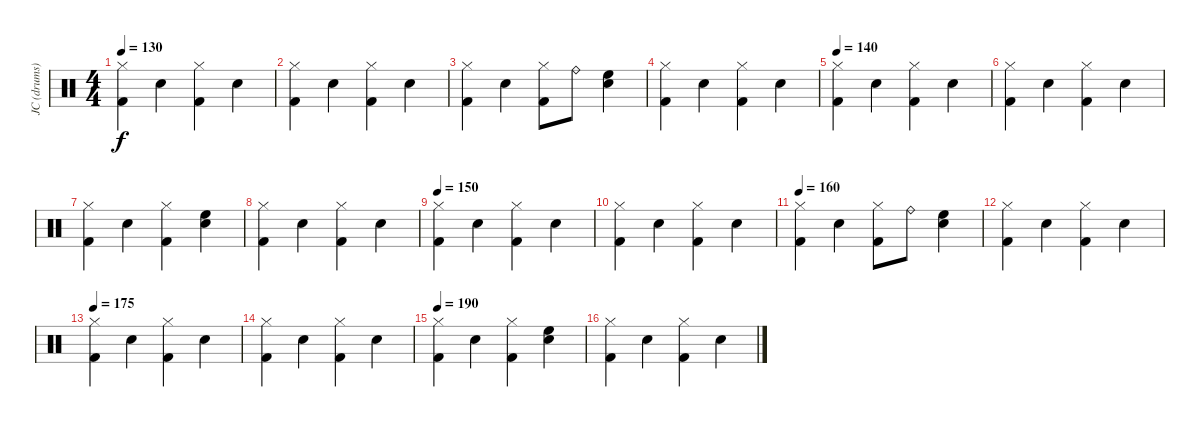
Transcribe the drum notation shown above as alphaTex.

\track ("JC (drums)" "JC (drums)") {instrument percussion}
\staff {score}
\articulation defaults
\ts (4 4)
\tempo 130
\clef neutral
\ks c
("Hi-Hat (closed)" "Kick (hit) 2").4{dy f} "Electric Snare (hit)".4 ("Hi-Hat (closed)" "Kick (hit) 2").4 "Snare (hit) 2".4 |
("Hi-Hat (closed)" "Kick (hit) 2").4 "Electric Snare (hit)".4 ("Hi-Hat (closed)" "Kick (hit) 2").4 "Snare (hit) 2".4 |
("Hi-Hat (closed)" "Kick (hit) 2").4 "Electric Snare (hit)".4 ("Hi-Hat (closed)" "Kick (hit) 2").8 "Ride (bell)".8 ("High Floor Tom (hit)" "Snare (hit) 2").4 |
("Hi-Hat (closed)" "Kick (hit) 2").4 "Electric Snare (hit)".4 ("Hi-Hat (closed)" "Kick (hit) 2").4 "Snare (hit) 2".4 |
\tempo 140
("Hi-Hat (closed)" "Kick (hit) 2").4 "Electric Snare (hit)".4 ("Hi-Hat (closed)" "Kick (hit) 2").4 "Snare (hit) 2".4 |
("Hi-Hat (closed)" "Kick (hit) 2").4 "Electric Snare (hit)".4 ("Hi-Hat (closed)" "Kick (hit) 2").4 "Snare (hit) 2".4 |
("Hi-Hat (closed)" "Kick (hit) 2").4 "Electric Snare (hit)".4 ("Hi-Hat (closed)" "Kick (hit) 2").4 ("High Floor Tom (hit)" "Snare (hit) 2").4 |
("Hi-Hat (closed)" "Kick (hit) 2").4 "Electric Snare (hit)".4 ("Hi-Hat (closed)" "Kick (hit) 2").4 "Snare (hit) 2".4 |
\tempo 150
("Hi-Hat (closed)" "Kick (hit) 2").4 "Electric Snare (hit)".4 ("Hi-Hat (closed)" "Kick (hit) 2").4 "Snare (hit) 2".4 |
("Hi-Hat (closed)" "Kick (hit) 2").4 "Electric Snare (hit)".4 ("Hi-Hat (closed)" "Kick (hit) 2").4 "Snare (hit) 2".4 |
\tempo 160
("Hi-Hat (closed)" "Kick (hit) 2").4 "Electric Snare (hit)".4 ("Hi-Hat (closed)" "Kick (hit) 2").8 "Ride (bell)".8 ("High Floor Tom (hit)" "Snare (hit) 2").4 |
("Hi-Hat (closed)" "Kick (hit) 2").4 "Electric Snare (hit)".4 ("Hi-Hat (closed)" "Kick (hit) 2").4 "Snare (hit) 2".4 |
\tempo 175
("Hi-Hat (closed)" "Kick (hit) 2").4 "Electric Snare (hit)".4 ("Hi-Hat (closed)" "Kick (hit) 2").4 "Snare (hit) 2".4 |
("Hi-Hat (closed)" "Kick (hit) 2").4 "Electric Snare (hit)".4 ("Hi-Hat (closed)" "Kick (hit) 2").4 "Snare (hit) 2".4 |
\tempo 190
("Hi-Hat (closed)" "Kick (hit) 2").4 "Electric Snare (hit)".4 ("Hi-Hat (closed)" "Kick (hit) 2").4 ("High Floor Tom (hit)" "Snare (hit) 2").4 |
("Hi-Hat (closed)" "Kick (hit) 2").4 "Electric Snare (hit)".4 ("Hi-Hat (closed)" "Kick (hit) 2").4 "Snare (hit) 2".4
